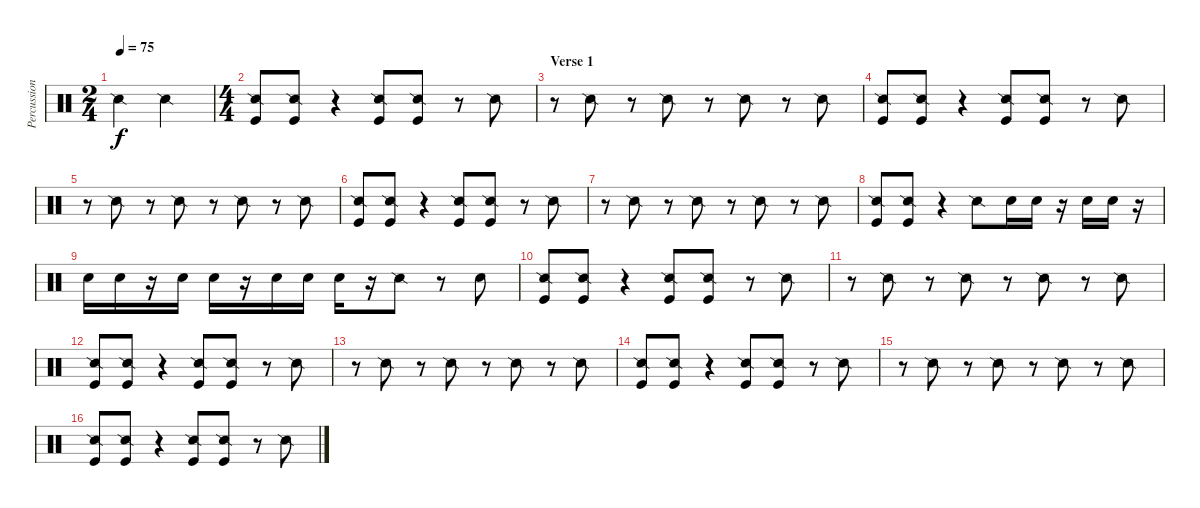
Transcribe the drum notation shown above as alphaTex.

\track ("Percussion" "Percussion") {instrument percussion}
\staff {score}
\articulation defaults
\ts (2 4)
\tempo 75
\clef neutral
\ks c "Snare (side stick) 2".4{dy f} "Snare (side stick) 2".4
|
\ts (4 4)
("Snare (side stick) 2" "Kick (hit)").8 ("Snare (side stick) 2" "Kick (hit)").8 r.4 ("Snare (side stick) 2" "Kick (hit)").8 ("Snare (side stick) 2" "Kick (hit)").8 r.8 "Snare (side stick) 2".8 |
\section ("" "Verse 1")
r.8 "Snare (side stick) 2".8 r.8 "Snare (side stick) 2".8 r.8 "Snare (side stick) 2".8 r.8 "Snare (side stick) 2".8 |
("Snare (side stick) 2" "Kick (hit)").8 ("Snare (side stick) 2" "Kick (hit)").8 r.4 ("Snare (side stick) 2" "Kick (hit)").8 ("Snare (side stick) 2" "Kick (hit)").8 r.8 "Snare (side stick) 2".8 |
r.8 "Snare (side stick) 2".8 r.8 "Snare (side stick) 2".8 r.8 "Snare (side stick) 2".8 r.8 "Snare (side stick) 2".8 |
("Snare (side stick) 2" "Kick (hit)").8 ("Snare (side stick) 2" "Kick (hit)").8 r.4 ("Snare (side stick) 2" "Kick (hit)").8 ("Snare (side stick) 2" "Kick (hit)").8 r.8 "Snare (side stick) 2".8 |
r.8 "Snare (side stick) 2".8 r.8 "Snare (side stick) 2".8 r.8 "Snare (side stick) 2".8 r.8 "Snare (side stick) 2".8 |
("Snare (side stick) 2" "Kick (hit)").8 ("Snare (side stick) 2" "Kick (hit)").8 r.4 "Snare (side stick) 2".8 "Snare (hit) 2".16 "Snare (hit) 2".16 r.16 "Snare (hit) 2".16 "Snare (hit) 2".16 r.16 |
"Snare (hit) 2".16 "Snare (hit) 2".16 r.16 "Snare (hit) 2".16 "Snare (hit) 2".16 r.16 "Snare (hit) 2".16 "Snare (hit) 2".16 "Snare (hit) 2".16 r.16 "Snare (side stick) 2".8 r.8 "Snare (hit) 2".8 |
("Snare (side stick) 2" "Kick (hit)").8 ("Snare (side stick) 2" "Kick (hit)").8 r.4 ("Snare (side stick) 2" "Kick (hit)").8 ("Snare (side stick) 2" "Kick (hit)").8 r.8 "Snare (side stick) 2".8 |
r.8 "Snare (side stick) 2".8 r.8 "Snare (side stick) 2".8 r.8 "Snare (side stick) 2".8 r.8 "Snare (side stick) 2".8 |
("Snare (side stick) 2" "Kick (hit)").8 ("Snare (side stick) 2" "Kick (hit)").8 r.4 ("Snare (side stick) 2" "Kick (hit)").8 ("Snare (side stick) 2" "Kick (hit)").8 r.8 "Snare (side stick) 2".8 |
r.8 "Snare (side stick) 2".8 r.8 "Snare (side stick) 2".8 r.8 "Snare (side stick) 2".8 r.8 "Snare (side stick) 2".8 |
("Snare (side stick) 2" "Kick (hit)").8 ("Snare (side stick) 2" "Kick (hit)").8 r.4 ("Snare (side stick) 2" "Kick (hit)").8 ("Snare (side stick) 2" "Kick (hit)").8 r.8 "Snare (side stick) 2".8 |
r.8 "Snare (side stick) 2".8 r.8 "Snare (side stick) 2".8 r.8 "Snare (side stick) 2".8 r.8 "Snare (side stick) 2".8 |
("Snare (side stick) 2" "Kick (hit)").8 ("Snare (side stick) 2" "Kick (hit)").8 r.4 ("Snare (side stick) 2" "Kick (hit)").8 ("Snare (side stick) 2" "Kick (hit)").8 r.8 "Snare (side stick) 2".8
